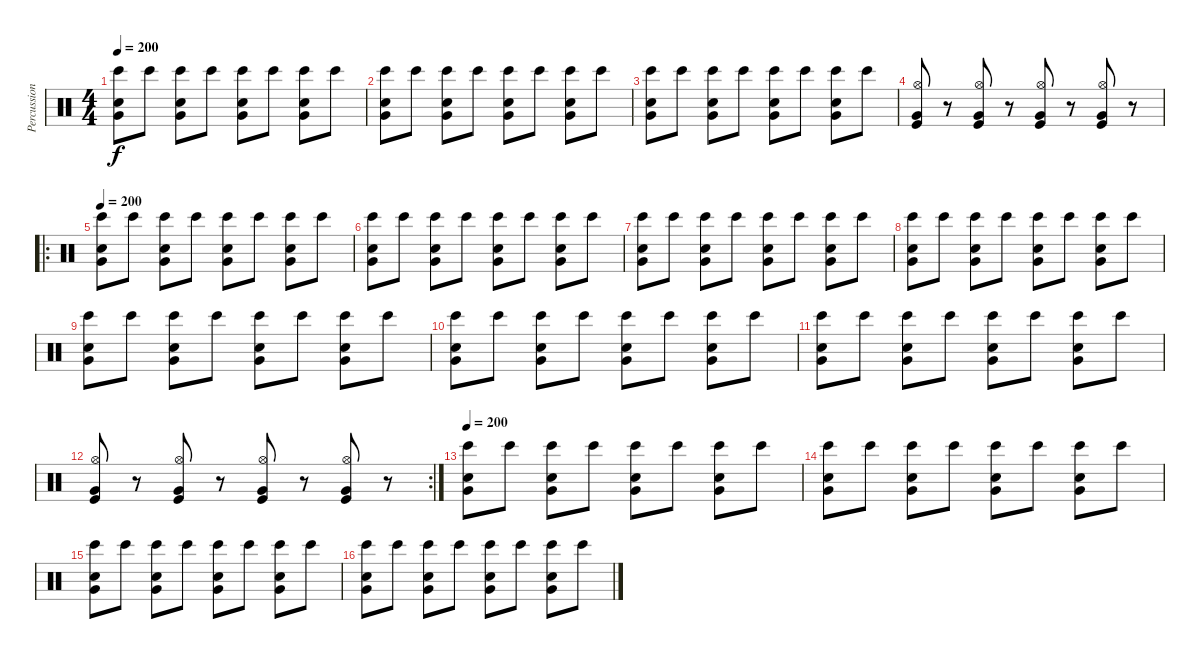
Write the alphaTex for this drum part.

\track ("Percussion" "Percussion") {instrument percussion}
\staff {score}
\articulation defaults
\ts (4 4)
\tempo 200
\clef neutral
\ks c
("Very Low Tom (hit)" "Bongo High (hit)" "Snare (hit) 2").8{dy f} "Bongo High (hit)".8 ("Very Low Tom (hit)" "Bongo High (hit)" "Snare (hit) 2").8 "Bongo High (hit)".8 ("Very Low Tom (hit)" "Bongo High (hit)" "Snare (hit) 2").8 "Bongo High (hit)".8 ("Very Low Tom (hit)" "Bongo High (hit)" "Snare (hit) 2").8 "Bongo High (hit)".8 |
("Very Low Tom (hit)" "Bongo High (hit)" "Snare (hit) 2").8 "Bongo High (hit)".8 ("Very Low Tom (hit)" "Bongo High (hit)" "Snare (hit) 2").8 "Bongo High (hit)".8 ("Very Low Tom (hit)" "Bongo High (hit)" "Snare (hit) 2").8 "Bongo High (hit)".8 ("Very Low Tom (hit)" "Bongo High (hit)" "Snare (hit) 2").8 "Bongo High (hit)".8 |
("Very Low Tom (hit)" "Bongo High (hit)" "Snare (hit) 2").8 "Bongo High (hit)".8 ("Very Low Tom (hit)" "Bongo High (hit)" "Snare (hit) 2").8 "Bongo High (hit)".8 ("Very Low Tom (hit)" "Bongo High (hit)" "Snare (hit) 2").8 "Bongo High (hit)".8 ("Very Low Tom (hit)" "Bongo High (hit)" "Snare (hit) 2").8 "Bongo High (hit)".8 |
("Very Low Tom (hit)" "Hi-Hat (open)" "Kick (hit)").8 r.8 ("Very Low Tom (hit)" "Hi-Hat (open)" "Kick (hit)").8 r.8 ("Very Low Tom (hit)" "Hi-Hat (open)" "Kick (hit)").8 r.8 ("Very Low Tom (hit)" "Hi-Hat (open)" "Kick (hit)").8 r.8 |
\ro
\tempo 200
("Very Low Tom (hit)" "Bongo High (hit)" "Snare (hit) 2").8 "Bongo High (hit)".8 ("Very Low Tom (hit)" "Bongo High (hit)" "Snare (hit) 2").8 "Bongo High (hit)".8 ("Very Low Tom (hit)" "Bongo High (hit)" "Snare (hit) 2").8 "Bongo High (hit)".8 ("Very Low Tom (hit)" "Bongo High (hit)" "Snare (hit) 2").8 "Bongo High (hit)".8 |
("Very Low Tom (hit)" "Bongo High (hit)" "Snare (hit) 2").8 "Bongo High (hit)".8 ("Very Low Tom (hit)" "Bongo High (hit)" "Snare (hit) 2").8 "Bongo High (hit)".8 ("Very Low Tom (hit)" "Bongo High (hit)" "Snare (hit) 2").8 "Bongo High (hit)".8 ("Very Low Tom (hit)" "Bongo High (hit)" "Snare (hit) 2").8 "Bongo High (hit)".8 |
("Very Low Tom (hit)" "Bongo High (hit)" "Snare (hit) 2").8 "Bongo High (hit)".8 ("Very Low Tom (hit)" "Bongo High (hit)" "Snare (hit) 2").8 "Bongo High (hit)".8 ("Very Low Tom (hit)" "Bongo High (hit)" "Snare (hit) 2").8 "Bongo High (hit)".8 ("Very Low Tom (hit)" "Bongo High (hit)" "Snare (hit) 2").8 "Bongo High (hit)".8 |
("Very Low Tom (hit)" "Bongo High (hit)" "Snare (hit) 2").8 "Bongo High (hit)".8 ("Very Low Tom (hit)" "Bongo High (hit)" "Snare (hit) 2").8 "Bongo High (hit)".8 ("Very Low Tom (hit)" "Bongo High (hit)" "Snare (hit) 2").8 "Bongo High (hit)".8 ("Very Low Tom (hit)" "Bongo High (hit)" "Snare (hit) 2").8 "Bongo High (hit)".8 |
("Very Low Tom (hit)" "Bongo High (hit)" "Snare (hit) 2").8 "Bongo High (hit)".8 ("Very Low Tom (hit)" "Bongo High (hit)" "Snare (hit) 2").8 "Bongo High (hit)".8 ("Very Low Tom (hit)" "Bongo High (hit)" "Snare (hit) 2").8 "Bongo High (hit)".8 ("Very Low Tom (hit)" "Bongo High (hit)" "Snare (hit) 2").8 "Bongo High (hit)".8 |
("Very Low Tom (hit)" "Bongo High (hit)" "Snare (hit) 2").8 "Bongo High (hit)".8 ("Very Low Tom (hit)" "Bongo High (hit)" "Snare (hit) 2").8 "Bongo High (hit)".8 ("Very Low Tom (hit)" "Bongo High (hit)" "Snare (hit) 2").8 "Bongo High (hit)".8 ("Very Low Tom (hit)" "Bongo High (hit)" "Snare (hit) 2").8 "Bongo High (hit)".8 |
("Very Low Tom (hit)" "Bongo High (hit)" "Snare (hit) 2").8 "Bongo High (hit)".8 ("Very Low Tom (hit)" "Bongo High (hit)" "Snare (hit) 2").8 "Bongo High (hit)".8 ("Very Low Tom (hit)" "Bongo High (hit)" "Snare (hit) 2").8 "Bongo High (hit)".8 ("Very Low Tom (hit)" "Bongo High (hit)" "Snare (hit) 2").8 "Bongo High (hit)".8 |
\rc 2
("Very Low Tom (hit)" "Hi-Hat (open)" "Kick (hit)").8 r.8 ("Very Low Tom (hit)" "Hi-Hat (open)" "Kick (hit)").8 r.8 ("Very Low Tom (hit)" "Hi-Hat (open)" "Kick (hit)").8 r.8 ("Very Low Tom (hit)" "Hi-Hat (open)" "Kick (hit)").8 r.8 |
\tempo 200
("Very Low Tom (hit)" "Bongo High (hit)" "Snare (hit) 2").8 "Bongo High (hit)".8 ("Very Low Tom (hit)" "Bongo High (hit)" "Snare (hit) 2").8 "Bongo High (hit)".8 ("Very Low Tom (hit)" "Bongo High (hit)" "Snare (hit) 2").8 "Bongo High (hit)".8 ("Very Low Tom (hit)" "Bongo High (hit)" "Snare (hit) 2").8 "Bongo High (hit)".8 |
("Very Low Tom (hit)" "Bongo High (hit)" "Snare (hit) 2").8 "Bongo High (hit)".8 ("Very Low Tom (hit)" "Bongo High (hit)" "Snare (hit) 2").8 "Bongo High (hit)".8 ("Very Low Tom (hit)" "Bongo High (hit)" "Snare (hit) 2").8 "Bongo High (hit)".8 ("Very Low Tom (hit)" "Bongo High (hit)" "Snare (hit) 2").8 "Bongo High (hit)".8 |
("Very Low Tom (hit)" "Bongo High (hit)" "Snare (hit) 2").8 "Bongo High (hit)".8 ("Very Low Tom (hit)" "Bongo High (hit)" "Snare (hit) 2").8 "Bongo High (hit)".8 ("Very Low Tom (hit)" "Bongo High (hit)" "Snare (hit) 2").8 "Bongo High (hit)".8 ("Very Low Tom (hit)" "Bongo High (hit)" "Snare (hit) 2").8 "Bongo High (hit)".8 |
("Very Low Tom (hit)" "Bongo High (hit)" "Snare (hit) 2").8 "Bongo High (hit)".8 ("Very Low Tom (hit)" "Bongo High (hit)" "Snare (hit) 2").8 "Bongo High (hit)".8 ("Very Low Tom (hit)" "Bongo High (hit)" "Snare (hit) 2").8 "Bongo High (hit)".8 ("Very Low Tom (hit)" "Bongo High (hit)" "Snare (hit) 2").8 "Bongo High (hit)".8
